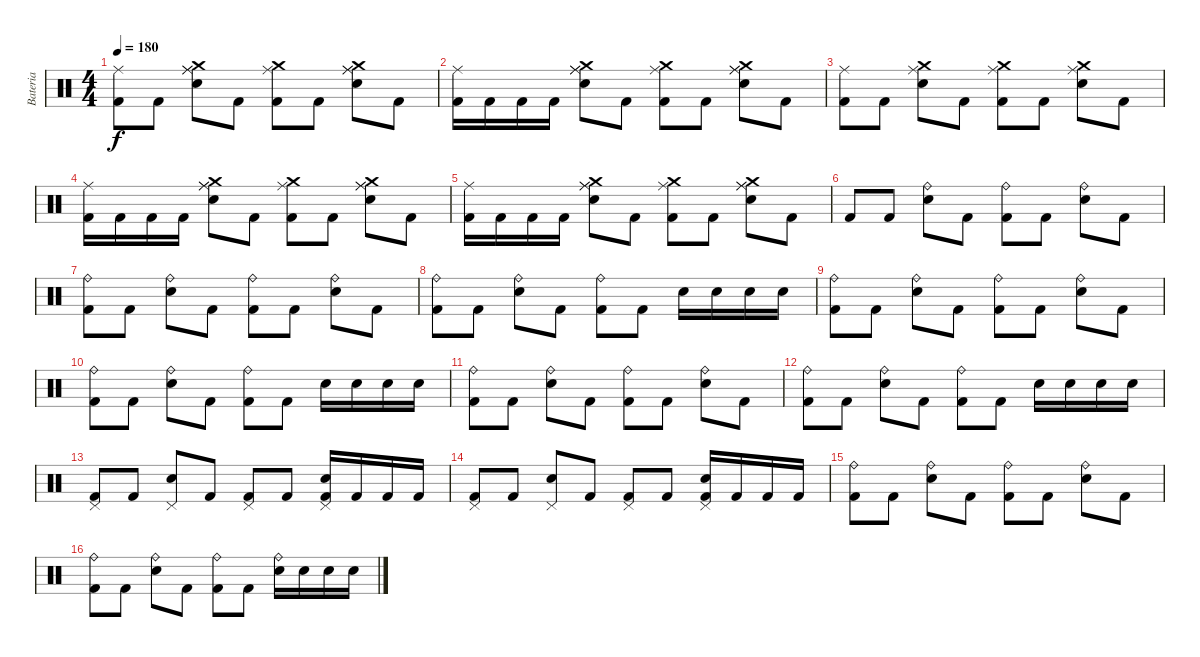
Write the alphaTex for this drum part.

\track ("Bateria" "Bateria") {instrument percussion}
\staff {score}
\articulation defaults
\ts (4 4)
\tempo 180
\clef neutral
\ks c
("Kick (hit) 2" "Ride (middle)").8{dy f} "Kick (hit) 2".8 ("Electric Snare (hit)" "Ride (middle)" "Ride (middle)" "Crash medium (hit)").8 "Kick (hit) 2".8 ("Kick (hit) 2" "Ride (middle)" "Crash medium (hit)").8 "Kick (hit) 2".8 ("Electric Snare (hit)" "Ride (middle)" "Ride (middle)" "Crash medium (hit)").8 "Kick (hit) 2".8 |
("Kick (hit) 2" "Ride (middle)").16 "Kick (hit) 2".16 "Kick (hit) 2".16 "Kick (hit) 2".16 ("Electric Snare (hit)" "Ride (middle)" "Ride (middle)" "Crash medium (hit)").8 "Kick (hit) 2".8 ("Kick (hit) 2" "Ride (middle)" "Crash medium (hit)").8 "Kick (hit) 2".8 ("Electric Snare (hit)" "Ride (middle)" "Ride (middle)" "Crash medium (hit)").8 "Kick (hit) 2".8 |
("Kick (hit) 2" "Ride (middle)").8 "Kick (hit) 2".8 ("Electric Snare (hit)" "Ride (middle)" "Crash medium (hit)").8 "Kick (hit) 2".8 ("Kick (hit) 2" "Ride (middle)" "Crash medium (hit)").8 "Kick (hit) 2".8 ("Electric Snare (hit)" "Ride (middle)" "Crash medium (hit)").8 "Kick (hit) 2".8 |
("Kick (hit) 2" "Ride (middle)").16 "Kick (hit) 2".16 "Kick (hit) 2".16 "Kick (hit) 2".16 ("Electric Snare (hit)" "Ride (middle)" "Ride (middle)" "Crash medium (hit)").8 "Kick (hit) 2".8 ("Kick (hit) 2" "Ride (middle)" "Crash medium (hit)").8 "Kick (hit) 2".8 ("Electric Snare (hit)" "Ride (middle)" "Ride (middle)" "Crash medium (hit)").8 "Kick (hit) 2".8 |
("Kick (hit) 2" "Ride (middle)").16 "Kick (hit) 2".16 "Kick (hit) 2".16 "Kick (hit) 2".16 ("Electric Snare (hit)" "Ride (middle)" "Ride (middle)" "Crash medium (hit)").8 "Kick (hit) 2".8 ("Kick (hit) 2" "Ride (middle)" "Crash medium (hit)").8 "Kick (hit) 2".8 ("Electric Snare (hit)" "Ride (middle)" "Ride (middle)" "Crash medium (hit)").8 "Kick (hit) 2".8 |
"Kick (hit) 2".8 "Kick (hit) 2".8 ("Electric Snare (hit)" "Ride (bell)").8 "Kick (hit) 2".8 ("Kick (hit) 2" "Ride (bell)").8 "Kick (hit) 2".8 ("Electric Snare (hit)" "Ride (bell)").8 "Kick (hit) 2".8 |
("Kick (hit) 2" "Ride (bell)").8 "Kick (hit) 2".8 ("Electric Snare (hit)" "Ride (bell)").8 "Kick (hit) 2".8 ("Kick (hit) 2" "Ride (bell)").8 "Kick (hit) 2".8 ("Electric Snare (hit)" "Ride (bell)").8 "Kick (hit) 2".8 |
("Kick (hit) 2" "Ride (bell)").8 "Kick (hit) 2".8 ("Electric Snare (hit)" "Ride (bell)").8 "Kick (hit) 2".8 ("Kick (hit) 2" "Ride (bell)").8 "Kick (hit) 2".8 "Electric Snare (hit)".16 "Electric Snare (hit)".16 "Electric Snare (hit)".16 "Electric Snare (hit)".16 |
("Kick (hit) 2" "Ride (bell)").8 "Kick (hit) 2".8 ("Electric Snare (hit)" "Ride (bell)").8 "Kick (hit) 2".8 ("Kick (hit) 2" "Ride (bell)").8 "Kick (hit) 2".8 ("Electric Snare (hit)" "Ride (bell)").8 "Kick (hit) 2".8 |
("Kick (hit) 2" "Ride (bell)").8 "Kick (hit) 2".8 ("Electric Snare (hit)" "Ride (bell)").8 "Kick (hit) 2".8 ("Kick (hit) 2" "Ride (bell)").8 "Kick (hit) 2".8 "Electric Snare (hit)".16 "Electric Snare (hit)".16 "Electric Snare (hit)".16 "Electric Snare (hit)".16 |
("Kick (hit) 2" "Ride (bell)").8 "Kick (hit) 2".8 ("Electric Snare (hit)" "Ride (bell)").8 "Kick (hit) 2".8 ("Kick (hit) 2" "Ride (bell)").8 "Kick (hit) 2".8 ("Electric Snare (hit)" "Ride (bell)").8 "Kick (hit) 2".8 |
("Kick (hit) 2" "Ride (bell)").8 "Kick (hit) 2".8 ("Electric Snare (hit)" "Ride (bell)").8 "Kick (hit) 2".8 ("Kick (hit) 2" "Ride (bell)").8 "Kick (hit) 2".8 "Electric Snare (hit)".16 "Electric Snare (hit)".16 "Electric Snare (hit)".16 "Electric Snare (hit)".16 |
("Kick (hit) 2" "Pedal Hi-Hat (hit)").8 "Kick (hit) 2".8 ("Electric Snare (hit)" "Pedal Hi-Hat (hit)").8 "Kick (hit) 2".8 ("Kick (hit) 2" "Pedal Hi-Hat (hit)").8 "Kick (hit) 2".8 ("Kick (hit) 2" "Electric Snare (hit)" "Pedal Hi-Hat (hit)").16 "Kick (hit) 2".16 "Kick (hit) 2".16 "Kick (hit) 2".16 |
("Kick (hit) 2" "Pedal Hi-Hat (hit)").8 "Kick (hit) 2".8 ("Electric Snare (hit)" "Pedal Hi-Hat (hit)").8 "Kick (hit) 2".8 ("Kick (hit) 2" "Pedal Hi-Hat (hit)").8 "Kick (hit) 2".8 ("Kick (hit) 2" "Electric Snare (hit)" "Pedal Hi-Hat (hit)").16 "Kick (hit) 2".16 "Kick (hit) 2".16 "Kick (hit) 2".16 |
("Kick (hit) 2" "Ride (bell)").8 "Kick (hit) 2".8 ("Electric Snare (hit)" "Ride (bell)").8 "Kick (hit) 2".8 ("Kick (hit) 2" "Ride (bell)").8 "Kick (hit) 2".8 ("Electric Snare (hit)" "Ride (bell)").8 "Kick (hit) 2".8 |
("Kick (hit) 2" "Ride (bell)").8 "Kick (hit) 2".8 ("Electric Snare (hit)" "Ride (bell)").8 "Kick (hit) 2".8 ("Kick (hit) 2" "Ride (bell)").8 "Kick (hit) 2".8 ("Electric Snare (hit)" "Ride (bell)").16 "Electric Snare (hit)".16 "Electric Snare (hit)".16 "Electric Snare (hit)".16
